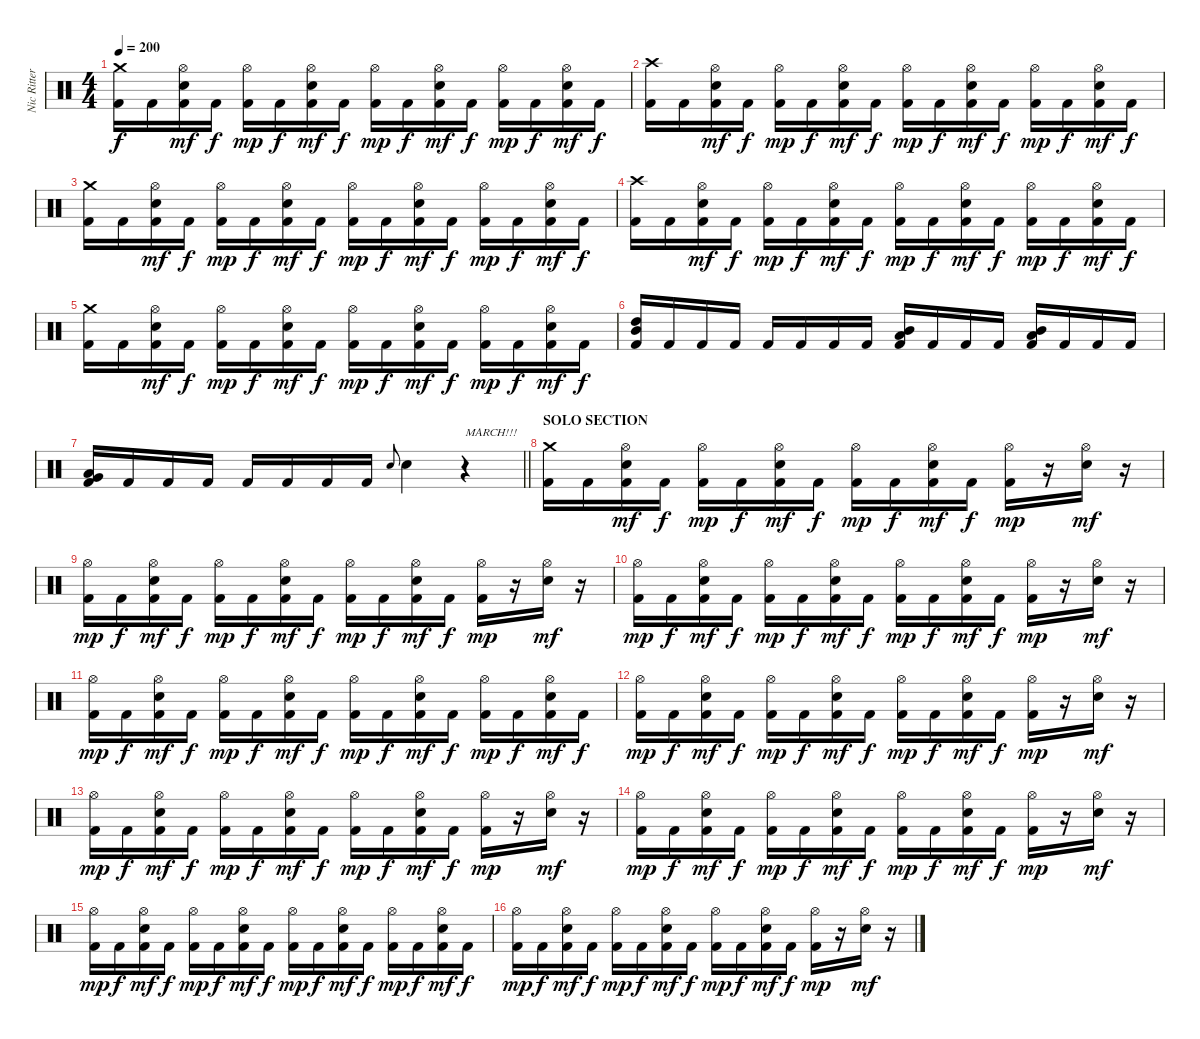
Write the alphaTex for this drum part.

\track ("Nic Ritter" "Nic Ritter") {instrument percussion}
\staff {score}
\articulation defaults
\ts (4 4)
\tempo 200
\clef neutral
\ks c
("Crash medium (hit)" "Kick (hit) 2").16{dy f} "Kick (hit) 2".16 ("Hi-Hat (open)" "Electric Snare (hit)" "Kick (hit) 2").16{dy mf} "Kick (hit) 2".16{dy f} ("Hi-Hat (open)" "Kick (hit) 2").16{dy mp} "Kick (hit) 2".16{dy f} ("Hi-Hat (open)" "Electric Snare (hit)" "Kick (hit) 2").16{dy mf} "Kick (hit) 2".16{dy f} ("Hi-Hat (open)" "Kick (hit) 2").16{dy mp} "Kick (hit) 2".16{dy f} ("Hi-Hat (open)" "Electric Snare (hit)" "Kick (hit) 2").16{dy mf} "Kick (hit) 2".16{dy f} ("Hi-Hat (open)" "Kick (hit) 2").16{dy mp} "Kick (hit) 2".16{dy f} ("Hi-Hat (open)" "Electric Snare (hit)" "Kick (hit) 2").16{dy mf} "Kick (hit) 2".16{dy f} |
("Crash high (hit)" "Kick (hit) 2").16 "Kick (hit) 2".16 ("Hi-Hat (open)" "Electric Snare (hit)" "Kick (hit) 2").16{dy mf} "Kick (hit) 2".16{dy f} ("Hi-Hat (open)" "Kick (hit) 2").16{dy mp} "Kick (hit) 2".16{dy f} ("Hi-Hat (open)" "Electric Snare (hit)" "Kick (hit) 2").16{dy mf} "Kick (hit) 2".16{dy f} ("Hi-Hat (open)" "Kick (hit) 2").16{dy mp} "Kick (hit) 2".16{dy f} ("Hi-Hat (open)" "Electric Snare (hit)" "Kick (hit) 2").16{dy mf} "Kick (hit) 2".16{dy f} ("Hi-Hat (open)" "Kick (hit) 2").16{dy mp} "Kick (hit) 2".16{dy f} ("Hi-Hat (open)" "Electric Snare (hit)" "Kick (hit) 2").16{dy mf} "Kick (hit) 2".16{dy f} |
("Crash medium (hit)" "Kick (hit) 2").16 "Kick (hit) 2".16 ("Hi-Hat (open)" "Electric Snare (hit)" "Kick (hit) 2").16{dy mf} "Kick (hit) 2".16{dy f} ("Hi-Hat (open)" "Kick (hit) 2").16{dy mp} "Kick (hit) 2".16{dy f} ("Hi-Hat (open)" "Electric Snare (hit)" "Kick (hit) 2").16{dy mf} "Kick (hit) 2".16{dy f} ("Hi-Hat (open)" "Kick (hit) 2").16{dy mp} "Kick (hit) 2".16{dy f} ("Hi-Hat (open)" "Electric Snare (hit)" "Kick (hit) 2").16{dy mf} "Kick (hit) 2".16{dy f} ("Hi-Hat (open)" "Kick (hit) 2").16{dy mp} "Kick (hit) 2".16{dy f} ("Hi-Hat (open)" "Electric Snare (hit)" "Kick (hit) 2").16{dy mf} "Kick (hit) 2".16{dy f} |
("Crash high (hit)" "Kick (hit) 2").16 "Kick (hit) 2".16 ("Hi-Hat (open)" "Electric Snare (hit)" "Kick (hit) 2").16{dy mf} "Kick (hit) 2".16{dy f} ("Hi-Hat (open)" "Kick (hit) 2").16{dy mp} "Kick (hit) 2".16{dy f} ("Hi-Hat (open)" "Electric Snare (hit)" "Kick (hit) 2").16{dy mf} "Kick (hit) 2".16{dy f} ("Hi-Hat (open)" "Kick (hit) 2").16{dy mp} "Kick (hit) 2".16{dy f} ("Hi-Hat (open)" "Electric Snare (hit)" "Kick (hit) 2").16{dy mf} "Kick (hit) 2".16{dy f} ("Hi-Hat (open)" "Kick (hit) 2").16{dy mp} "Kick (hit) 2".16{dy f} ("Hi-Hat (open)" "Electric Snare (hit)" "Kick (hit) 2").16{dy mf} "Kick (hit) 2".16{dy f} |
("Crash medium (hit)" "Kick (hit) 2").16 "Kick (hit) 2".16 ("Hi-Hat (open)" "Electric Snare (hit)" "Kick (hit) 2").16{dy mf} "Kick (hit) 2".16{dy f} ("Hi-Hat (open)" "Kick (hit) 2").16{dy mp} "Kick (hit) 2".16{dy f} ("Hi-Hat (open)" "Electric Snare (hit)" "Kick (hit) 2").16{dy mf} "Kick (hit) 2".16{dy f} ("Hi-Hat (open)" "Kick (hit) 2").16{dy mp} "Kick (hit) 2".16{dy f} ("Hi-Hat (open)" "Electric Snare (hit)" "Kick (hit) 2").16{dy mf} "Kick (hit) 2".16{dy f} ("Hi-Hat (open)" "Kick (hit) 2").16{dy mp} "Kick (hit) 2".16{dy f} ("Hi-Hat (open)" "Electric Snare (hit)" "Kick (hit) 2").16{dy mf} "Kick (hit) 2".16{dy f} |
("High Tom (hit)" "Mid Tom (hit)" "Kick (hit) 2").16 "Kick (hit) 2".16 "Kick (hit) 2".16 "Kick (hit) 2".16 "Kick (hit) 2".16 "Kick (hit) 2".16 "Kick (hit) 2".16 "Kick (hit) 2".16 ("Mid Tom (hit)" "Low Tom (hit)" "Kick (hit) 2").16 "Kick (hit) 2".16 "Kick (hit) 2".16 "Kick (hit) 2".16 ("Mid Tom (hit)" "Low Tom (hit)" "Kick (hit) 2").16 "Kick (hit) 2".16 "Kick (hit) 2".16 "Kick (hit) 2".16 |
\barLineRight lightlight
("Low Tom (hit)" "Very Low Tom (hit)" "Kick (hit) 2").16 "Kick (hit) 2".16 "Kick (hit) 2".16 "Kick (hit) 2".16 "Kick (hit) 2".16 "Kick (hit) 2".16 "Kick (hit) 2".16 "Kick (hit) 2".16 "Electric Snare (hit)".8{gr onbeat} "Electric Snare (hit)".4 r.4{txt "MARCH!!!"} |
\section ("" "SOLO SECTION")
("Crash medium (hit)" "Kick (hit) 2").16 "Kick (hit) 2".16 ("Hi-Hat (open)" "Electric Snare (hit)" "Kick (hit) 2").16{dy mf} "Kick (hit) 2".16{dy f} ("Hi-Hat (open)" "Kick (hit) 2").16{dy mp} "Kick (hit) 2".16{dy f} ("Hi-Hat (open)" "Electric Snare (hit)" "Kick (hit) 2").16{dy mf} "Kick (hit) 2".16{dy f} ("Hi-Hat (open)" "Kick (hit) 2").16{dy mp} "Kick (hit) 2".16{dy f} ("Hi-Hat (open)" "Electric Snare (hit)" "Kick (hit) 2").16{dy mf} "Kick (hit) 2".16{dy f} ("Hi-Hat (open)" "Kick (hit) 2").16{dy mp} r.16 ("Hi-Hat (open)" "Electric Snare (hit)").16{dy mf} r.16 |
("Hi-Hat (open)" "Kick (hit) 2").16{dy mp} "Kick (hit) 2".16{dy f} ("Hi-Hat (open)" "Electric Snare (hit)" "Kick (hit) 2").16{dy mf} "Kick (hit) 2".16{dy f} ("Hi-Hat (open)" "Kick (hit) 2").16{dy mp} "Kick (hit) 2".16{dy f} ("Hi-Hat (open)" "Electric Snare (hit)" "Kick (hit) 2").16{dy mf} "Kick (hit) 2".16{dy f} ("Hi-Hat (open)" "Kick (hit) 2").16{dy mp} "Kick (hit) 2".16{dy f} ("Hi-Hat (open)" "Electric Snare (hit)" "Kick (hit) 2").16{dy mf} "Kick (hit) 2".16{dy f} ("Hi-Hat (open)" "Kick (hit) 2").16{dy mp} r.16 ("Hi-Hat (open)" "Electric Snare (hit)").16{dy mf} r.16 |
("Hi-Hat (open)" "Kick (hit) 2").16{dy mp} "Kick (hit) 2".16{dy f} ("Hi-Hat (open)" "Electric Snare (hit)" "Kick (hit) 2").16{dy mf} "Kick (hit) 2".16{dy f} ("Hi-Hat (open)" "Kick (hit) 2").16{dy mp} "Kick (hit) 2".16{dy f} ("Hi-Hat (open)" "Electric Snare (hit)" "Kick (hit) 2").16{dy mf} "Kick (hit) 2".16{dy f} ("Hi-Hat (open)" "Kick (hit) 2").16{dy mp} "Kick (hit) 2".16{dy f} ("Hi-Hat (open)" "Electric Snare (hit)" "Kick (hit) 2").16{dy mf} "Kick (hit) 2".16{dy f} ("Hi-Hat (open)" "Kick (hit) 2").16{dy mp} r.16 ("Hi-Hat (open)" "Electric Snare (hit)").16{dy mf} r.16 |
("Hi-Hat (open)" "Kick (hit) 2").16{dy mp} "Kick (hit) 2".16{dy f} ("Hi-Hat (open)" "Electric Snare (hit)" "Kick (hit) 2").16{dy mf} "Kick (hit) 2".16{dy f} ("Hi-Hat (open)" "Kick (hit) 2").16{dy mp} "Kick (hit) 2".16{dy f} ("Hi-Hat (open)" "Electric Snare (hit)" "Kick (hit) 2").16{dy mf} "Kick (hit) 2".16{dy f} ("Hi-Hat (open)" "Kick (hit) 2").16{dy mp} "Kick (hit) 2".16{dy f} ("Hi-Hat (open)" "Electric Snare (hit)" "Kick (hit) 2").16{dy mf} "Kick (hit) 2".16{dy f} ("Hi-Hat (open)" "Kick (hit) 2").16{dy mp} "Kick (hit) 2".16{dy f} ("Hi-Hat (open)" "Electric Snare (hit)" "Kick (hit) 2").16{dy mf} "Kick (hit) 2".16{dy f} |
("Hi-Hat (open)" "Kick (hit) 2").16{dy mp} "Kick (hit) 2".16{dy f} ("Hi-Hat (open)" "Electric Snare (hit)" "Kick (hit) 2").16{dy mf} "Kick (hit) 2".16{dy f} ("Hi-Hat (open)" "Kick (hit) 2").16{dy mp} "Kick (hit) 2".16{dy f} ("Hi-Hat (open)" "Electric Snare (hit)" "Kick (hit) 2").16{dy mf} "Kick (hit) 2".16{dy f} ("Hi-Hat (open)" "Kick (hit) 2").16{dy mp} "Kick (hit) 2".16{dy f} ("Hi-Hat (open)" "Electric Snare (hit)" "Kick (hit) 2").16{dy mf} "Kick (hit) 2".16{dy f} ("Hi-Hat (open)" "Kick (hit) 2").16{dy mp} r.16 ("Hi-Hat (open)" "Electric Snare (hit)").16{dy mf} r.16 |
("Hi-Hat (open)" "Kick (hit) 2").16{dy mp} "Kick (hit) 2".16{dy f} ("Hi-Hat (open)" "Electric Snare (hit)" "Kick (hit) 2").16{dy mf} "Kick (hit) 2".16{dy f} ("Hi-Hat (open)" "Kick (hit) 2").16{dy mp} "Kick (hit) 2".16{dy f} ("Hi-Hat (open)" "Electric Snare (hit)" "Kick (hit) 2").16{dy mf} "Kick (hit) 2".16{dy f} ("Hi-Hat (open)" "Kick (hit) 2").16{dy mp} "Kick (hit) 2".16{dy f} ("Hi-Hat (open)" "Electric Snare (hit)" "Kick (hit) 2").16{dy mf} "Kick (hit) 2".16{dy f} ("Hi-Hat (open)" "Kick (hit) 2").16{dy mp} r.16 ("Hi-Hat (open)" "Electric Snare (hit)").16{dy mf} r.16 |
("Hi-Hat (open)" "Kick (hit) 2").16{dy mp} "Kick (hit) 2".16{dy f} ("Hi-Hat (open)" "Electric Snare (hit)" "Kick (hit) 2").16{dy mf} "Kick (hit) 2".16{dy f} ("Hi-Hat (open)" "Kick (hit) 2").16{dy mp} "Kick (hit) 2".16{dy f} ("Hi-Hat (open)" "Electric Snare (hit)" "Kick (hit) 2").16{dy mf} "Kick (hit) 2".16{dy f} ("Hi-Hat (open)" "Kick (hit) 2").16{dy mp} "Kick (hit) 2".16{dy f} ("Hi-Hat (open)" "Electric Snare (hit)" "Kick (hit) 2").16{dy mf} "Kick (hit) 2".16{dy f} ("Hi-Hat (open)" "Kick (hit) 2").16{dy mp} r.16 ("Hi-Hat (open)" "Electric Snare (hit)").16{dy mf} r.16 |
("Hi-Hat (open)" "Kick (hit) 2").16{dy mp} "Kick (hit) 2".16{dy f} ("Hi-Hat (open)" "Electric Snare (hit)" "Kick (hit) 2").16{dy mf} "Kick (hit) 2".16{dy f} ("Hi-Hat (open)" "Kick (hit) 2").16{dy mp} "Kick (hit) 2".16{dy f} ("Hi-Hat (open)" "Electric Snare (hit)" "Kick (hit) 2").16{dy mf} "Kick (hit) 2".16{dy f} ("Hi-Hat (open)" "Kick (hit) 2").16{dy mp} "Kick (hit) 2".16{dy f} ("Hi-Hat (open)" "Electric Snare (hit)" "Kick (hit) 2").16{dy mf} "Kick (hit) 2".16{dy f} ("Hi-Hat (open)" "Kick (hit) 2").16{dy mp} "Kick (hit) 2".16{dy f} ("Hi-Hat (open)" "Electric Snare (hit)" "Kick (hit) 2").16{dy mf} "Kick (hit) 2".16{dy f} |
("Hi-Hat (open)" "Kick (hit) 2").16{dy mp} "Kick (hit) 2".16{dy f} ("Hi-Hat (open)" "Electric Snare (hit)" "Kick (hit) 2").16{dy mf} "Kick (hit) 2".16{dy f} ("Hi-Hat (open)" "Kick (hit) 2").16{dy mp} "Kick (hit) 2".16{dy f} ("Hi-Hat (open)" "Electric Snare (hit)" "Kick (hit) 2").16{dy mf} "Kick (hit) 2".16{dy f} ("Hi-Hat (open)" "Kick (hit) 2").16{dy mp} "Kick (hit) 2".16{dy f} ("Hi-Hat (open)" "Electric Snare (hit)" "Kick (hit) 2").16{dy mf} "Kick (hit) 2".16{dy f} ("Hi-Hat (open)" "Kick (hit) 2").16{dy mp} r.16 ("Hi-Hat (open)" "Electric Snare (hit)").16{dy mf} r.16
